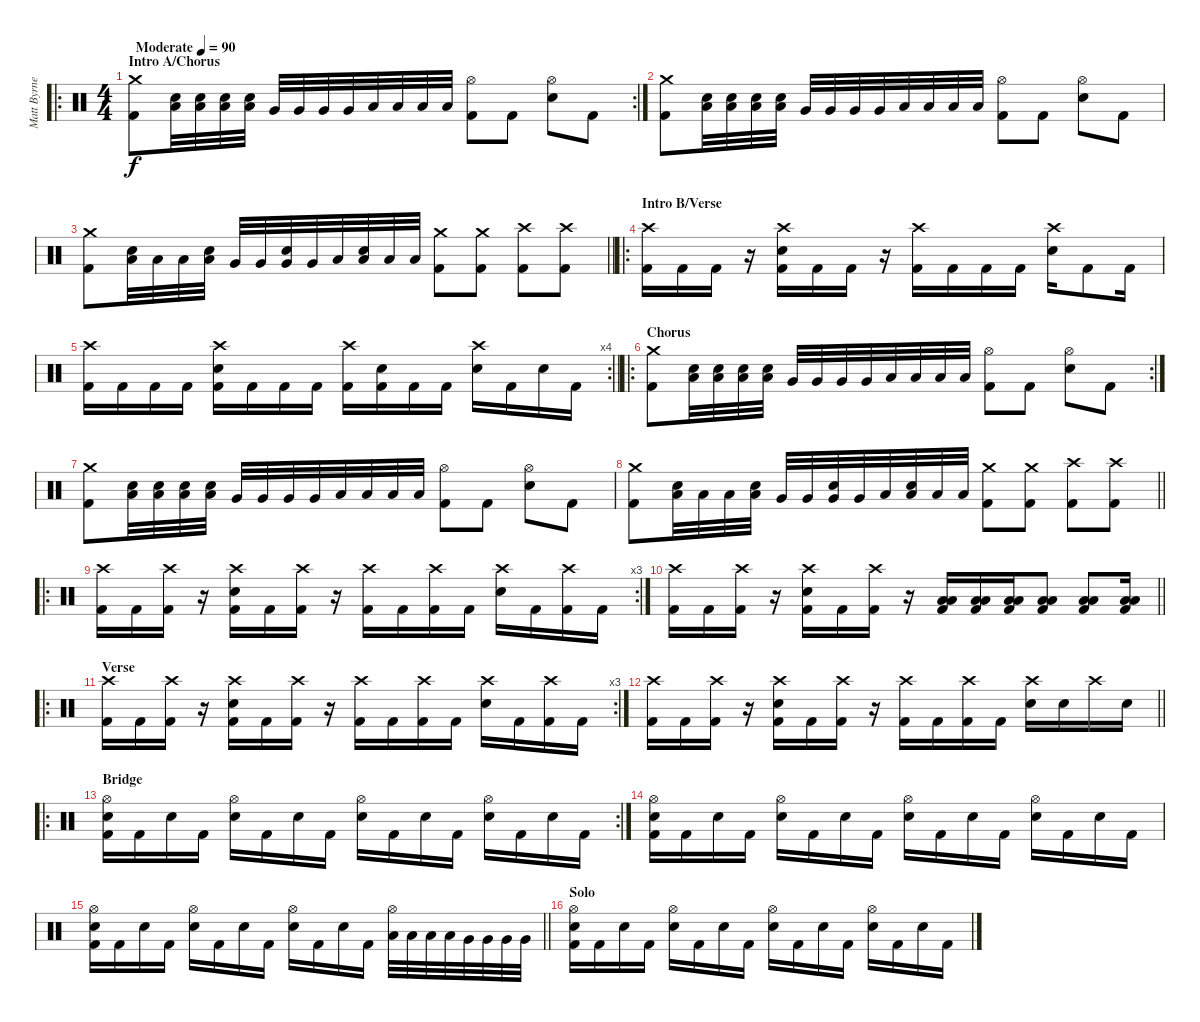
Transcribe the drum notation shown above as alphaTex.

\track ("Matt Byrne" "Matt Byrne") {instrument percussion}
\staff {score}
\articulation defaults
\ro
\rc 2
\ts (4 4)
\section ("" "Intro A/Chorus")
\tempo (90 "Moderate")
\clef neutral
\ks c
("Crash medium (hit)" "Kick (hit) 2").8{dy f} ("Snare (hit) 2" "Low Tom (hit)").32 ("Snare (hit) 2" "Low Tom (hit)").32 ("Snare (hit) 2" "Low Tom (hit)").32 ("Snare (hit) 2" "Low Tom (hit)").32 "Very Low Tom (hit)".32 "Very Low Tom (hit)".32 "Very Low Tom (hit)".32 "Very Low Tom (hit)".32 "Low Floor Tom (hit)".32 "Low Floor Tom (hit)".32 "Low Floor Tom (hit)".32 "Low Floor Tom (hit)".32 ("Hi-Hat (open)" "Kick (hit) 2").8 "Kick (hit) 2".8 ("Hi-Hat (open)" "Snare (hit) 2").8 "Kick (hit) 2".8 |
("Crash medium (hit)" "Kick (hit) 2").8 ("Snare (hit) 2" "Low Tom (hit)").32 ("Snare (hit) 2" "Low Tom (hit)").32 ("Snare (hit) 2" "Low Tom (hit)").32 ("Snare (hit) 2" "Low Tom (hit)").32 "Very Low Tom (hit)".32 "Very Low Tom (hit)".32 "Very Low Tom (hit)".32 "Very Low Tom (hit)".32 "Low Floor Tom (hit)".32 "Low Floor Tom (hit)".32 "Low Floor Tom (hit)".32 "Low Floor Tom (hit)".32 ("Hi-Hat (open)" "Kick (hit) 2").8 "Kick (hit) 2".8 ("Hi-Hat (open)" "Snare (hit) 2").8 "Kick (hit) 2".8 |
\barLineRight lightlight
("Crash medium (hit)" "Kick (hit) 2").8 ("Snare (hit) 2" "Low Tom (hit)").32 "Low Tom (hit)".32 "Low Tom (hit)".32 ("Snare (hit) 2" "Low Tom (hit)").32 "Very Low Tom (hit)".32 "Very Low Tom (hit)".32 ("Snare (hit) 2" "Very Low Tom (hit)").32 "Very Low Tom (hit)".32 "Low Floor Tom (hit)".32 ("Snare (hit) 2" "Low Floor Tom (hit)").32 "Low Floor Tom (hit)".32 "Low Floor Tom (hit)".32 ("Crash medium (hit)" "Kick (hit) 2").8 ("Crash medium (hit)" "Kick (hit) 2").8 ("Crash high (hit)" "Kick (hit) 2").8 ("Crash high (hit)" "Kick (hit) 2").8 |
\ro
\section ("" "Intro B/Verse")
("Crash high (hit)" "Kick (hit) 2").16 "Kick (hit) 2".16 "Kick (hit) 2".16 r.16 ("Snare (hit) 2" "Crash high (hit)" "Kick (hit) 2").16 "Kick (hit) 2".16 "Kick (hit) 2".16 r.16 ("Crash high (hit)" "Kick (hit) 2").16 "Kick (hit) 2".16 "Kick (hit) 2".16 "Kick (hit) 2".16 ("Snare (hit) 2" "Crash high (hit)").16 "Kick (hit) 2".8 "Kick (hit) 2".16 |
\rc 4
\barLineRight lightlight
("Crash high (hit)" "Kick (hit) 2").16 "Kick (hit) 2".16 "Kick (hit) 2".16 "Kick (hit) 2".16 ("Snare (hit) 2" "Crash high (hit)" "Kick (hit) 2").16 "Kick (hit) 2".16 "Kick (hit) 2".16 "Kick (hit) 2".16 ("Crash high (hit)" "Kick (hit) 2").16 ("Snare (hit) 2" "Kick (hit) 2").16 "Kick (hit) 2".16 "Kick (hit) 2".16 ("Crash high (hit)" "Snare (hit) 2").16 "Kick (hit) 2".16 "Snare (hit) 2".16 "Kick (hit) 2".16 |
\ro
\rc 2
\section ("" "Chorus")
("Crash medium (hit)" "Kick (hit) 2").8 ("Snare (hit) 2" "Low Tom (hit)").32 ("Snare (hit) 2" "Low Tom (hit)").32 ("Snare (hit) 2" "Low Tom (hit)").32 ("Snare (hit) 2" "Low Tom (hit)").32 "Very Low Tom (hit)".32 "Very Low Tom (hit)".32 "Very Low Tom (hit)".32 "Very Low Tom (hit)".32 "Low Floor Tom (hit)".32 "Low Floor Tom (hit)".32 "Low Floor Tom (hit)".32 "Low Floor Tom (hit)".32 ("Hi-Hat (open)" "Kick (hit) 2").8 "Kick (hit) 2".8 ("Hi-Hat (open)" "Snare (hit) 2").8 "Kick (hit) 2".8 |
("Crash medium (hit)" "Kick (hit) 2").8 ("Snare (hit) 2" "Low Tom (hit)").32 ("Snare (hit) 2" "Low Tom (hit)").32 ("Snare (hit) 2" "Low Tom (hit)").32 ("Snare (hit) 2" "Low Tom (hit)").32 "Very Low Tom (hit)".32 "Very Low Tom (hit)".32 "Very Low Tom (hit)".32 "Very Low Tom (hit)".32 "Low Floor Tom (hit)".32 "Low Floor Tom (hit)".32 "Low Floor Tom (hit)".32 "Low Floor Tom (hit)".32 ("Hi-Hat (open)" "Kick (hit) 2").8 "Kick (hit) 2".8 ("Hi-Hat (open)" "Snare (hit) 2").8 "Kick (hit) 2".8 |
\barLineRight lightlight
("Crash medium (hit)" "Kick (hit) 2").8 ("Snare (hit) 2" "Low Tom (hit)").32 "Low Tom (hit)".32 "Low Tom (hit)".32 ("Snare (hit) 2" "Low Tom (hit)").32 "Very Low Tom (hit)".32 "Very Low Tom (hit)".32 ("Snare (hit) 2" "Very Low Tom (hit)").32 "Very Low Tom (hit)".32 "Low Floor Tom (hit)".32 ("Snare (hit) 2" "Low Floor Tom (hit)").32 "Low Floor Tom (hit)".32 "Low Floor Tom (hit)".32 ("Crash medium (hit)" "Kick (hit) 2").8 ("Crash medium (hit)" "Kick (hit) 2").8 ("Crash high (hit)" "Kick (hit) 2").8 ("Crash high (hit)" "Kick (hit) 2").8 |
\ro
\rc 3
("Crash high (hit)" "Kick (hit) 2").16 "Kick (hit) 2".16 ("Crash high (hit)" "Kick (hit) 2").16 r.16 ("Snare (hit) 2" "Crash high (hit)" "Kick (hit) 2").16 "Kick (hit) 2".16 ("Crash high (hit)" "Kick (hit) 2").16 r.16 ("Crash high (hit)" "Kick (hit) 2").16 "Kick (hit) 2".16 ("Crash high (hit)" "Kick (hit) 2").16 "Kick (hit) 2".16 ("Snare (hit) 2" "Crash high (hit)").16 "Kick (hit) 2".16 ("Crash high (hit)" "Kick (hit) 2").16 "Kick (hit) 2".16 |
\barLineRight lightlight
("Crash high (hit)" "Kick (hit) 2").16 "Kick (hit) 2".16 ("Crash high (hit)" "Kick (hit) 2").16 r.16 ("Snare (hit) 2" "Crash high (hit)" "Kick (hit) 2").16 "Kick (hit) 2".16 ("Crash high (hit)" "Kick (hit) 2").16 r.16 ("Low Tom (hit)" "Low Floor Tom (hit)" "Kick (hit) 2").16 ("Low Tom (hit)" "Low Floor Tom (hit)" "Kick (hit) 2").16 ("Low Tom (hit)" "Low Floor Tom (hit)" "Kick (hit) 2").16 ("Low Floor Tom (hit)" "Kick (hit) 2" "Low Tom (hit)").8 ("Low Floor Tom (hit)" "Kick (hit) 2" "Low Tom (hit)").8 ("Low Floor Tom (hit)" "Kick (hit) 2" "Low Tom (hit)").16 |
\ro
\rc 3
\section ("" "Verse")
("Crash high (hit)" "Kick (hit) 2").16 "Kick (hit) 2".16 ("Crash high (hit)" "Kick (hit) 2").16 r.16 ("Snare (hit) 2" "Crash high (hit)" "Kick (hit) 2").16 "Kick (hit) 2".16 ("Crash high (hit)" "Kick (hit) 2").16 r.16 ("Crash high (hit)" "Kick (hit) 2").16 "Kick (hit) 2".16 ("Crash high (hit)" "Kick (hit) 2").16 "Kick (hit) 2".16 ("Snare (hit) 2" "Crash high (hit)").16 "Kick (hit) 2".16 ("Crash high (hit)" "Kick (hit) 2").16 "Kick (hit) 2".16 |
\barLineRight lightlight
("Crash high (hit)" "Kick (hit) 2").16 "Kick (hit) 2".16 ("Crash high (hit)" "Kick (hit) 2").16 r.16 ("Snare (hit) 2" "Crash high (hit)" "Kick (hit) 2").16 "Kick (hit) 2".16 ("Crash high (hit)" "Kick (hit) 2").16 r.16 ("Crash high (hit)" "Kick (hit) 2").16 "Kick (hit) 2".16 ("Crash high (hit)" "Kick (hit) 2").16 "Kick (hit) 2".16 ("Crash high (hit)" "Snare (hit) 2").16 "Snare (hit) 2".16 "Crash high (hit)".16 "Snare (hit) 2".16 |
\ro
\rc 2
\section ("" "Bridge")
("Snare (hit) 2" "Hi-Hat (open)" "Kick (hit) 2").16 "Kick (hit) 2".16 "Snare (hit) 2".16 "Kick (hit) 2".16 ("Hi-Hat (open)" "Snare (hit) 2").16 "Kick (hit) 2".16 "Snare (hit) 2".16 "Kick (hit) 2".16 ("Hi-Hat (open)" "Snare (hit) 2").16 "Kick (hit) 2".16 "Snare (hit) 2".16 "Kick (hit) 2".16 ("Hi-Hat (open)" "Snare (hit) 2").16 "Kick (hit) 2".16 "Snare (hit) 2".16 "Kick (hit) 2".16 |
("Snare (hit) 2" "Hi-Hat (open)" "Kick (hit) 2").16 "Kick (hit) 2".16 "Snare (hit) 2".16 "Kick (hit) 2".16 ("Hi-Hat (open)" "Snare (hit) 2").16 "Kick (hit) 2".16 "Snare (hit) 2".16 "Kick (hit) 2".16 ("Hi-Hat (open)" "Snare (hit) 2").16 "Kick (hit) 2".16 "Snare (hit) 2".16 "Kick (hit) 2".16 ("Hi-Hat (open)" "Snare (hit) 2").16 "Kick (hit) 2".16 "Snare (hit) 2".16 "Kick (hit) 2".16 |
\barLineRight lightlight
("Snare (hit) 2" "Hi-Hat (open)" "Kick (hit) 2").16 "Kick (hit) 2".16 "Snare (hit) 2".16 "Kick (hit) 2".16 ("Hi-Hat (open)" "Snare (hit) 2").16 "Kick (hit) 2".16 "Snare (hit) 2".16 "Kick (hit) 2".16 ("Hi-Hat (open)" "Snare (hit) 2").16 "Kick (hit) 2".16 "Snare (hit) 2".16 "Kick (hit) 2".16 ("Hi-Hat (open)" "Low Tom (hit)").32 "Low Tom (hit)".32 "Low Tom (hit)".32 "Low Tom (hit)".32 "Very Low Tom (hit)".32 "Very Low Tom (hit)".32 "Very Low Tom (hit)".32 "Very Low Tom (hit)".32 |
\section ("" "Solo")
("Snare (hit) 2" "Hi-Hat (open)" "Kick (hit) 2").16 "Kick (hit) 2".16 "Snare (hit) 2".16 "Kick (hit) 2".16 ("Hi-Hat (open)" "Snare (hit) 2").16 "Kick (hit) 2".16 "Snare (hit) 2".16 "Kick (hit) 2".16 ("Hi-Hat (open)" "Snare (hit) 2").16 "Kick (hit) 2".16 "Snare (hit) 2".16 "Kick (hit) 2".16 ("Hi-Hat (open)" "Snare (hit) 2").16 "Kick (hit) 2".16 "Snare (hit) 2".16 "Kick (hit) 2".16
